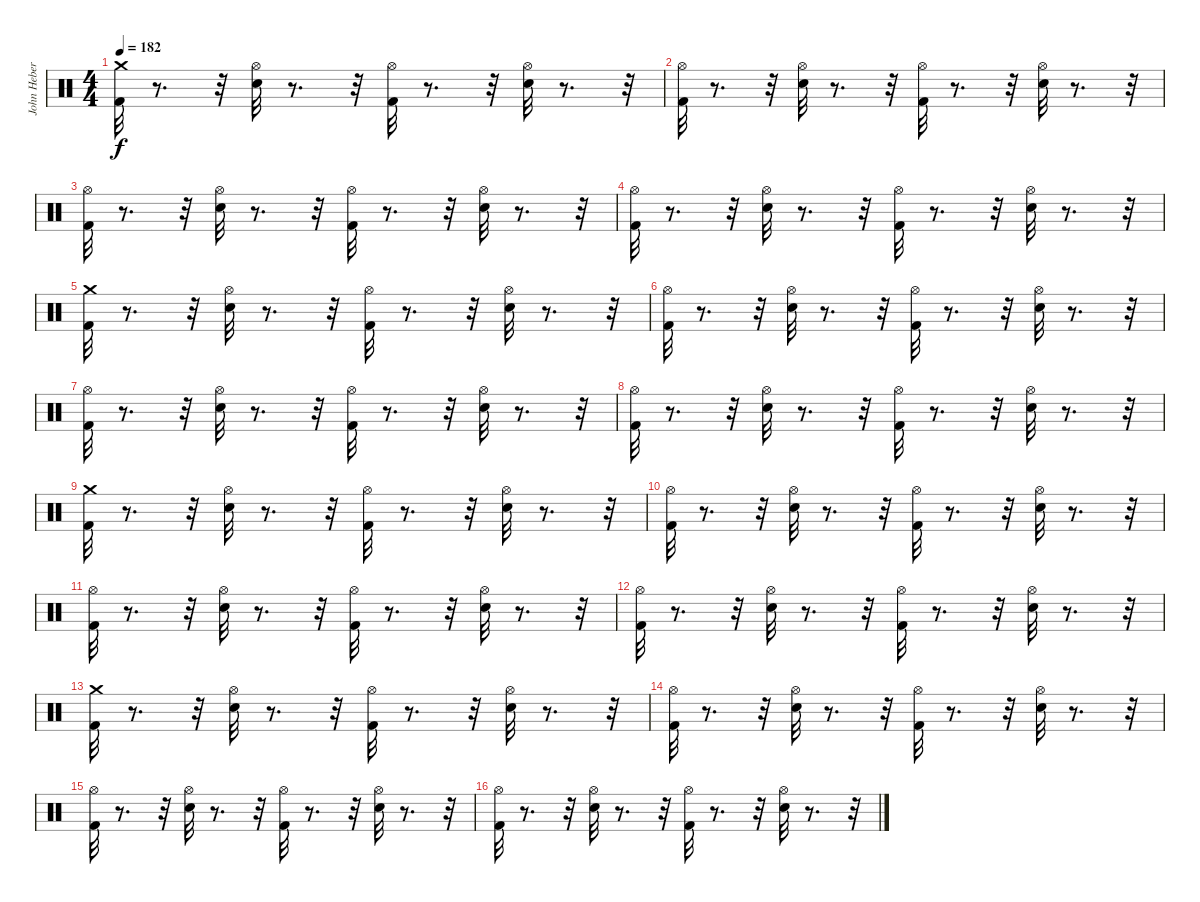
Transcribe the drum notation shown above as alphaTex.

\track ("John Hebert" "John Heber") {instrument percussion}
\staff {score}
\articulation defaults
\ts (4 4)
\tempo 182
\clef neutral
\ks c
("Kick (hit) 2" "Crash medium (hit)").32{dy f} r.8{d} r.32 ("Hi-Hat (open)" "Snare (hit) 2").32 r.8{d} r.32 ("Hi-Hat (open)" "Kick (hit) 2").32 r.8{d} r.32 ("Hi-Hat (open)" "Snare (hit) 2").32 r.8{d} r.32 |
("Hi-Hat (open)" "Kick (hit) 2").32 r.8{d} r.32 ("Snare (hit) 2" "Hi-Hat (open)").32 r.8{d} r.32 ("Kick (hit) 2" "Hi-Hat (open)").32 r.8{d} r.32 ("Snare (hit) 2" "Hi-Hat (open)").32 r.8{d} r.32 |
("Hi-Hat (open)" "Kick (hit) 2").32 r.8{d} r.32 ("Snare (hit) 2" "Hi-Hat (open)").32 r.8{d} r.32 ("Kick (hit) 2" "Hi-Hat (open)").32 r.8{d} r.32 ("Snare (hit) 2" "Hi-Hat (open)").32 r.8{d} r.32 |
("Hi-Hat (open)" "Kick (hit) 2").32 r.8{d} r.32 ("Snare (hit) 2" "Hi-Hat (open)").32 r.8{d} r.32 ("Kick (hit) 2" "Hi-Hat (open)").32 r.8{d} r.32 ("Snare (hit) 2" "Hi-Hat (open)").32 r.8{d} r.32 |
("Kick (hit) 2" "Crash medium (hit)").32 r.8{d} r.32 ("Hi-Hat (open)" "Snare (hit) 2").32 r.8{d} r.32 ("Hi-Hat (open)" "Kick (hit) 2").32 r.8{d} r.32 ("Hi-Hat (open)" "Snare (hit) 2").32 r.8{d} r.32 |
("Hi-Hat (open)" "Kick (hit) 2").32 r.8{d} r.32 ("Snare (hit) 2" "Hi-Hat (open)").32 r.8{d} r.32 ("Kick (hit) 2" "Hi-Hat (open)").32 r.8{d} r.32 ("Snare (hit) 2" "Hi-Hat (open)").32 r.8{d} r.32 |
("Hi-Hat (open)" "Kick (hit) 2").32 r.8{d} r.32 ("Snare (hit) 2" "Hi-Hat (open)").32 r.8{d} r.32 ("Kick (hit) 2" "Hi-Hat (open)").32 r.8{d} r.32 ("Snare (hit) 2" "Hi-Hat (open)").32 r.8{d} r.32 |
("Hi-Hat (open)" "Kick (hit) 2").32 r.8{d} r.32 ("Snare (hit) 2" "Hi-Hat (open)").32 r.8{d} r.32 ("Kick (hit) 2" "Hi-Hat (open)").32 r.8{d} r.32 ("Snare (hit) 2" "Hi-Hat (open)").32 r.8{d} r.32 |
("Kick (hit) 2" "Crash medium (hit)").32 r.8{d} r.32 ("Hi-Hat (open)" "Snare (hit) 2").32 r.8{d} r.32 ("Hi-Hat (open)" "Kick (hit) 2").32 r.8{d} r.32 ("Hi-Hat (open)" "Snare (hit) 2").32 r.8{d} r.32 |
("Hi-Hat (open)" "Kick (hit) 2").32 r.8{d} r.32 ("Snare (hit) 2" "Hi-Hat (open)").32 r.8{d} r.32 ("Kick (hit) 2" "Hi-Hat (open)").32 r.8{d} r.32 ("Snare (hit) 2" "Hi-Hat (open)").32 r.8{d} r.32 |
("Hi-Hat (open)" "Kick (hit) 2").32 r.8{d} r.32 ("Snare (hit) 2" "Hi-Hat (open)").32 r.8{d} r.32 ("Kick (hit) 2" "Hi-Hat (open)").32 r.8{d} r.32 ("Snare (hit) 2" "Hi-Hat (open)").32 r.8{d} r.32 |
("Hi-Hat (open)" "Kick (hit) 2").32 r.8{d} r.32 ("Snare (hit) 2" "Hi-Hat (open)").32 r.8{d} r.32 ("Kick (hit) 2" "Hi-Hat (open)").32 r.8{d} r.32 ("Snare (hit) 2" "Hi-Hat (open)").32 r.8{d} r.32 |
("Kick (hit) 2" "Crash medium (hit)").32 r.8{d} r.32 ("Hi-Hat (open)" "Snare (hit) 2").32 r.8{d} r.32 ("Hi-Hat (open)" "Kick (hit) 2").32 r.8{d} r.32 ("Hi-Hat (open)" "Snare (hit) 2").32 r.8{d} r.32 |
("Hi-Hat (open)" "Kick (hit) 2").32 r.8{d} r.32 ("Snare (hit) 2" "Hi-Hat (open)").32 r.8{d} r.32 ("Kick (hit) 2" "Hi-Hat (open)").32 r.8{d} r.32 ("Snare (hit) 2" "Hi-Hat (open)").32 r.8{d} r.32 |
("Hi-Hat (open)" "Kick (hit) 2").32 r.8{d} r.32 ("Snare (hit) 2" "Hi-Hat (open)").32 r.8{d} r.32 ("Kick (hit) 2" "Hi-Hat (open)").32 r.8{d} r.32 ("Snare (hit) 2" "Hi-Hat (open)").32 r.8{d} r.32 |
("Hi-Hat (open)" "Kick (hit) 2").32 r.8{d} r.32 ("Snare (hit) 2" "Hi-Hat (open)").32 r.8{d} r.32 ("Kick (hit) 2" "Hi-Hat (open)").32 r.8{d} r.32 ("Snare (hit) 2" "Hi-Hat (open)").32 r.8{d} r.32
